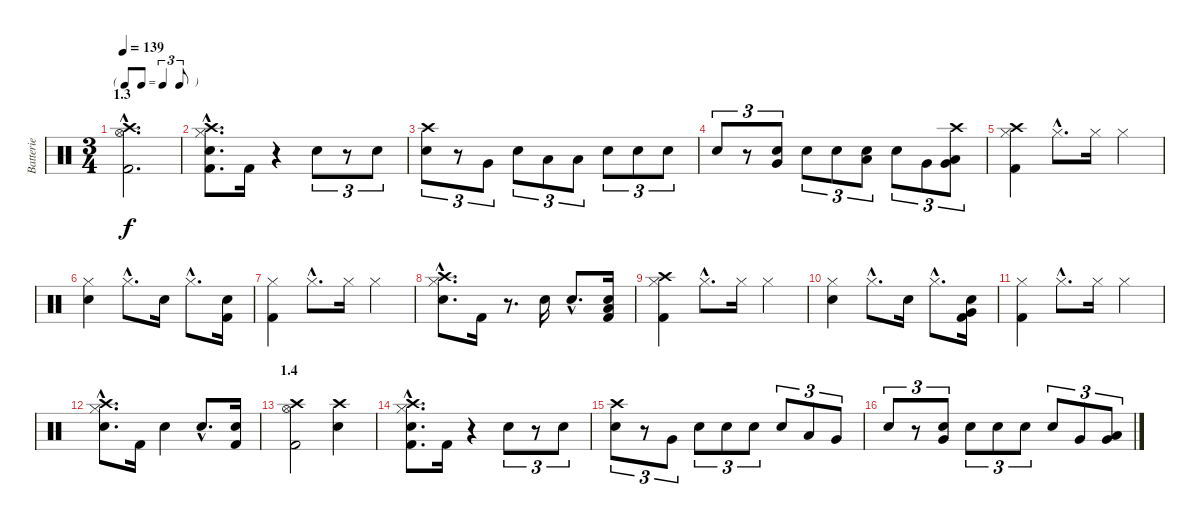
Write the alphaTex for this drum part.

\track ("Batterie" "Batterie") {instrument percussion}
\staff {score}
\articulation defaults
\ts (3 4)
\tf triplet8th
\section ("" "1.3")
\tempo 139
\clef neutral
\ks c
("Crash high (hit)"{hac} "Hi-Hat (open)"{hac} "Kick (hit) 2"{hac}).2{d dy f} |
("Crash high (hit)"{hac} "Hi-Hat (closed)"{hac} "Kick (hit) 2"{hac} "Snare (hit) 2"{hac}).8{d} "Kick (hit) 2".16 r.4 "Snare (hit) 2".8{tu (3 2)} r.8{tu (3 2)} "Snare (hit) 2".8{tu (3 2)} |
("Crash high (hit)" "Snare (hit) 2").8{tu (3 2)} r.8{tu (3 2)} "Very Low Tom (hit)".8{tu (3 2)} "Snare (hit) 2".8{tu (3 2)} "Low Floor Tom (hit)".8{tu (3 2)} "Low Tom (hit)".8{tu (3 2)} "Snare (hit) 2".8{tu (3 2)} "Snare (hit) 2".8{tu (3 2)} "Snare (hit) 2".8{tu (3 2)} |
"Snare (hit) 2".8{tu (3 2)} r.8{tu (3 2)} ("Snare (hit) 2" "Very Low Tom (hit)").8{tu (3 2)} "Snare (hit) 2".8{tu (3 2)} "Snare (hit) 2".8{tu (3 2)} ("Low Floor Tom (hit)" "Snare (hit) 2").8{tu (3 2)} "Snare (hit) 2".8{tu (3 2)} "Very Low Tom (hit)".8{tu (3 2)} ("Crash high (hit)" "Low Tom (hit)" "Very Low Tom (hit)").8{tu (3 2)} |
("Crash high (hit)" "Hi-Hat (closed)" "Kick (hit) 2").4 "Hi-Hat (closed)"{hac}.8{d} "Hi-Hat (closed)".16 "Hi-Hat (closed)".4 |
("Hi-Hat (closed)" "Snare (hit) 2").4 "Hi-Hat (closed)"{hac}.8{d} "Snare (hit) 2".16 "Hi-Hat (closed)"{hac}.8{d} ("Snare (hit) 2" "Kick (hit) 2").16 |
("Hi-Hat (closed)" "Kick (hit) 2").4 "Hi-Hat (closed)"{hac}.8{d} "Hi-Hat (closed)".16 "Hi-Hat (closed)".4 |
("Crash high (hit)"{hac} "Hi-Hat (closed)"{hac} "Snare (hit) 2"{hac}).8{d} "Kick (hit) 2".16 r.8{d} "Snare (hit) 2".16 "Electric Snare (hit)"{hac}.8{d} ("Snare (hit) 2" "Low Floor Tom (hit)" "Kick (hit) 2").16 |
("Crash high (hit)" "Hi-Hat (closed)" "Kick (hit) 2").4 "Hi-Hat (closed)"{hac}.8{d} "Hi-Hat (closed)".16 "Hi-Hat (closed)".4 |
("Hi-Hat (closed)" "Snare (hit) 2").4 "Hi-Hat (closed)"{hac}.8{d} "Snare (hit) 2".16 "Hi-Hat (closed)"{hac}.8{d} ("Very Low Tom (hit)" "Snare (hit) 2" "Kick (hit) 2").16 |
("Hi-Hat (closed)" "Kick (hit) 2").4 "Hi-Hat (closed)"{hac}.8{d} "Hi-Hat (closed)".16 "Hi-Hat (closed)".4 |
("Crash high (hit)"{hac} "Hi-Hat (closed)"{hac} "Snare (hit) 2"{hac}).8{d} "Kick (hit) 2".16 "Snare (hit) 2".4 "Electric Snare (hit)"{hac}.8{d} ("Snare (hit) 2" "Kick (hit) 2").16 |
\section ("" "1.4")
("Crash high (hit)" "Hi-Hat (open)" "Kick (hit) 2").2 ("Crash high (hit)" "Snare (hit) 2").4 |
("Crash high (hit)"{hac} "Hi-Hat (closed)"{hac} "Kick (hit) 2"{hac} "Snare (hit) 2"{hac}).8{d} "Kick (hit) 2".16 r.4 "Snare (hit) 2".8{tu (3 2)} r.8{tu (3 2)} "Snare (hit) 2".8{tu (3 2)} |
("Crash high (hit)" "Snare (hit) 2").8{tu (3 2)} r.8{tu (3 2)} "Very Low Tom (hit)".8{tu (3 2)} "Snare (hit) 2".8{tu (3 2)} "Snare (hit) 2".8{tu (3 2)} "Snare (hit) 2".8{tu (3 2)} "Snare (hit) 2".8{tu (3 2)} "Low Floor Tom (hit)".8{tu (3 2)} "Very Low Tom (hit)".8{tu (3 2)} |
"Snare (hit) 2".8{tu (3 2)} r.8{tu (3 2)} ("Snare (hit) 2" "Very Low Tom (hit)").8{tu (3 2)} "Snare (hit) 2".8{tu (3 2)} "Snare (hit) 2".8{tu (3 2)} "Snare (hit) 2".8{tu (3 2)} "Snare (hit) 2".8{tu (3 2)} "Very Low Tom (hit)".8{tu (3 2)} ("Low Floor Tom (hit)" "Very Low Tom (hit)").8{tu (3 2)}
